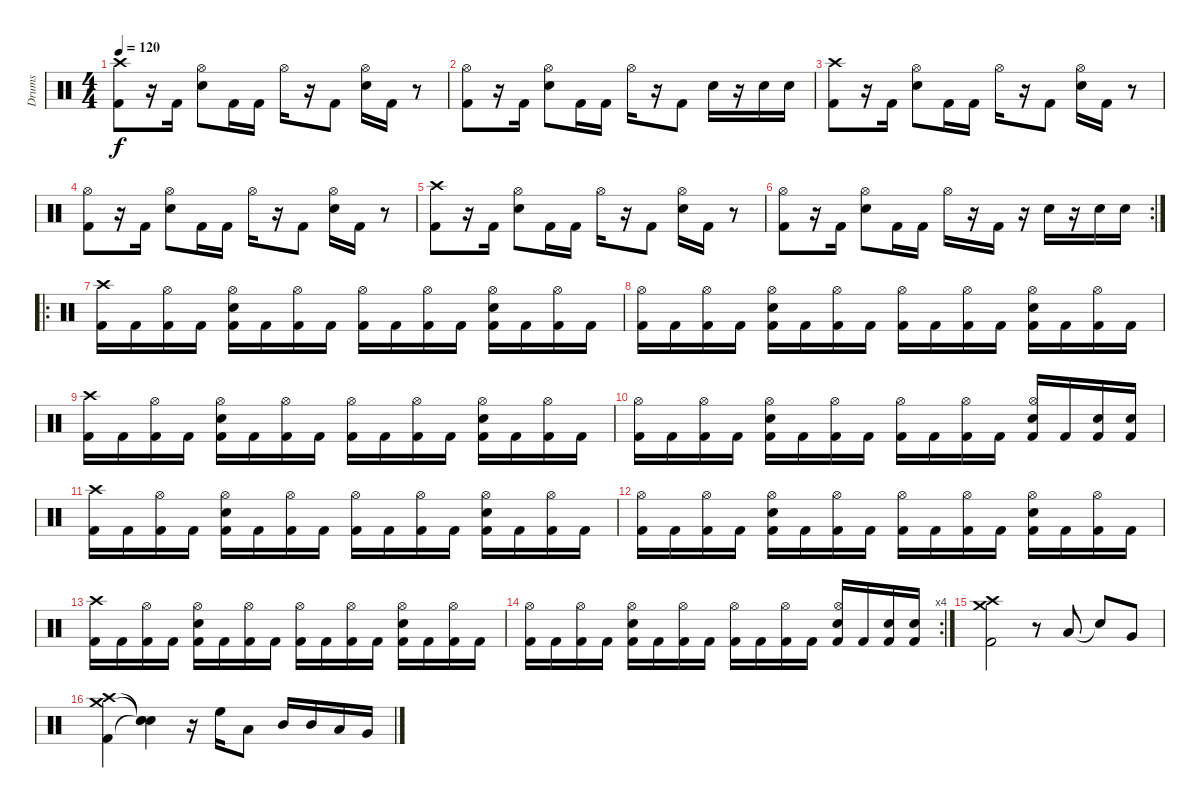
\track ("Drums" "Drums") {instrument percussion}
\staff {score}
\articulation defaults
\ts (4 4)
\tempo 120
\clef neutral
\ks c
("Crash high (hit)" "Kick (hit) 2").8{dy f} r.16 "Kick (hit) 2".16 ("Hi-Hat (open)" "Snare (hit) 2").8 "Kick (hit) 2".16 "Kick (hit) 2".16 "Hi-Hat (open)".16 r.16 "Kick (hit) 2".8 ("Hi-Hat (open)" "Snare (hit) 2").16 "Kick (hit) 2".16 r.8 |
("Hi-Hat (open)" "Kick (hit) 2").8 r.16 "Kick (hit) 2".16 ("Hi-Hat (open)" "Snare (hit) 2").8 "Kick (hit) 2".16 "Kick (hit) 2".16 "Hi-Hat (open)".16 r.16 "Kick (hit) 2".8 "Snare (hit) 2".16 r.16 "Snare (hit) 2".16 "Snare (hit) 2".16 |
("Crash high (hit)" "Kick (hit) 2").8 r.16 "Kick (hit) 2".16 ("Hi-Hat (open)" "Snare (hit) 2").8 "Kick (hit) 2".16 "Kick (hit) 2".16 "Hi-Hat (open)".16 r.16 "Kick (hit) 2".8 ("Hi-Hat (open)" "Snare (hit) 2").16 "Kick (hit) 2".16 r.8 |
("Hi-Hat (open)" "Kick (hit) 2").8 r.16 "Kick (hit) 2".16 ("Hi-Hat (open)" "Snare (hit) 2").8 "Kick (hit) 2".16 "Kick (hit) 2".16 "Hi-Hat (open)".16 r.16 "Kick (hit) 2".8 ("Hi-Hat (open)" "Snare (hit) 2").16 "Kick (hit) 2".16 r.8 |
("Crash high (hit)" "Kick (hit) 2").8 r.16 "Kick (hit) 2".16 ("Hi-Hat (open)" "Snare (hit) 2").8 "Kick (hit) 2".16 "Kick (hit) 2".16 "Hi-Hat (open)".16 r.16 "Kick (hit) 2".8 ("Hi-Hat (open)" "Snare (hit) 2").16 "Kick (hit) 2".16 r.8 |
\rc 2
("Hi-Hat (open)" "Kick (hit) 2").8 r.16 "Kick (hit) 2".16 ("Hi-Hat (open)" "Snare (hit) 2").8 "Kick (hit) 2".16 "Kick (hit) 2".16 "Hi-Hat (open)".16 r.16 "Kick (hit) 2".16 r.16 "Snare (hit) 2".16 r.16 "Snare (hit) 2".16 "Snare (hit) 2".16 |
\ro
("Crash high (hit)" "Kick (hit) 2").16 "Kick (hit) 2".16 ("Hi-Hat (open)" "Kick (hit) 2").16 "Kick (hit) 2".16 ("Hi-Hat (open)" "Snare (hit) 2" "Kick (hit) 2").16 "Kick (hit) 2".16 ("Hi-Hat (open)" "Kick (hit) 2").16 "Kick (hit) 2".16 ("Hi-Hat (open)" "Kick (hit) 2").16 "Kick (hit) 2".16 ("Hi-Hat (open)" "Kick (hit) 2").16 "Kick (hit) 2".16 ("Hi-Hat (open)" "Snare (hit) 2" "Kick (hit) 2").16 "Kick (hit) 2".16 ("Hi-Hat (open)" "Kick (hit) 2").16 "Kick (hit) 2".16 |
("Hi-Hat (open)" "Kick (hit) 2").16 "Kick (hit) 2".16 ("Hi-Hat (open)" "Kick (hit) 2").16 "Kick (hit) 2".16 ("Hi-Hat (open)" "Snare (hit) 2" "Kick (hit) 2").16 "Kick (hit) 2".16 ("Hi-Hat (open)" "Kick (hit) 2").16 "Kick (hit) 2".16 ("Hi-Hat (open)" "Kick (hit) 2").16 "Kick (hit) 2".16 ("Hi-Hat (open)" "Kick (hit) 2").16 "Kick (hit) 2".16 ("Hi-Hat (open)" "Snare (hit) 2" "Kick (hit) 2").16 "Kick (hit) 2".16 ("Hi-Hat (open)" "Kick (hit) 2").16 "Kick (hit) 2".16 |
("Crash high (hit)" "Kick (hit) 2").16 "Kick (hit) 2".16 ("Hi-Hat (open)" "Kick (hit) 2").16 "Kick (hit) 2".16 ("Hi-Hat (open)" "Snare (hit) 2" "Kick (hit) 2").16 "Kick (hit) 2".16 ("Hi-Hat (open)" "Kick (hit) 2").16 "Kick (hit) 2".16 ("Hi-Hat (open)" "Kick (hit) 2").16 "Kick (hit) 2".16 ("Hi-Hat (open)" "Kick (hit) 2").16 "Kick (hit) 2".16 ("Hi-Hat (open)" "Snare (hit) 2" "Kick (hit) 2").16 "Kick (hit) 2".16 ("Hi-Hat (open)" "Kick (hit) 2").16 "Kick (hit) 2".16 |
("Hi-Hat (open)" "Kick (hit) 2").16 "Kick (hit) 2".16 ("Hi-Hat (open)" "Kick (hit) 2").16 "Kick (hit) 2".16 ("Hi-Hat (open)" "Snare (hit) 2" "Kick (hit) 2").16 "Kick (hit) 2".16 ("Hi-Hat (open)" "Kick (hit) 2").16 "Kick (hit) 2".16 ("Hi-Hat (open)" "Kick (hit) 2").16 "Kick (hit) 2".16 ("Hi-Hat (open)" "Kick (hit) 2").16 "Kick (hit) 2".16 ("Hi-Hat (open)" "Snare (hit) 2" "Kick (hit) 2").16 "Kick (hit) 2".16 ("Snare (hit) 2" "Kick (hit) 2").16 ("Snare (hit) 2" "Kick (hit) 2").16 |
("Crash high (hit)" "Kick (hit) 2").16 "Kick (hit) 2".16 ("Hi-Hat (open)" "Kick (hit) 2").16 "Kick (hit) 2".16 ("Hi-Hat (open)" "Snare (hit) 2" "Kick (hit) 2").16 "Kick (hit) 2".16 ("Hi-Hat (open)" "Kick (hit) 2").16 "Kick (hit) 2".16 ("Hi-Hat (open)" "Kick (hit) 2").16 "Kick (hit) 2".16 ("Hi-Hat (open)" "Kick (hit) 2").16 "Kick (hit) 2".16 ("Hi-Hat (open)" "Snare (hit) 2" "Kick (hit) 2").16 "Kick (hit) 2".16 ("Hi-Hat (open)" "Kick (hit) 2").16 "Kick (hit) 2".16 |
("Hi-Hat (open)" "Kick (hit) 2").16 "Kick (hit) 2".16 ("Hi-Hat (open)" "Kick (hit) 2").16 "Kick (hit) 2".16 ("Hi-Hat (open)" "Snare (hit) 2" "Kick (hit) 2").16 "Kick (hit) 2".16 ("Hi-Hat (open)" "Kick (hit) 2").16 "Kick (hit) 2".16 ("Hi-Hat (open)" "Kick (hit) 2").16 "Kick (hit) 2".16 ("Hi-Hat (open)" "Kick (hit) 2").16 "Kick (hit) 2".16 ("Hi-Hat (open)" "Snare (hit) 2" "Kick (hit) 2").16 "Kick (hit) 2".16 ("Hi-Hat (open)" "Kick (hit) 2").16 "Kick (hit) 2".16 |
("Crash high (hit)" "Kick (hit) 2").16 "Kick (hit) 2".16 ("Hi-Hat (open)" "Kick (hit) 2").16 "Kick (hit) 2".16 ("Hi-Hat (open)" "Snare (hit) 2" "Kick (hit) 2").16 "Kick (hit) 2".16 ("Hi-Hat (open)" "Kick (hit) 2").16 "Kick (hit) 2".16 ("Hi-Hat (open)" "Kick (hit) 2").16 "Kick (hit) 2".16 ("Hi-Hat (open)" "Kick (hit) 2").16 "Kick (hit) 2".16 ("Hi-Hat (open)" "Snare (hit) 2" "Kick (hit) 2").16 "Kick (hit) 2".16 ("Hi-Hat (open)" "Kick (hit) 2").16 "Kick (hit) 2".16 |
\rc 4
("Hi-Hat (open)" "Kick (hit) 2").16 "Kick (hit) 2".16 ("Hi-Hat (open)" "Kick (hit) 2").16 "Kick (hit) 2".16 ("Hi-Hat (open)" "Snare (hit) 2" "Kick (hit) 2").16 "Kick (hit) 2".16 ("Hi-Hat (open)" "Kick (hit) 2").16 "Kick (hit) 2".16 ("Hi-Hat (open)" "Kick (hit) 2").16 "Kick (hit) 2".16 ("Hi-Hat (open)" "Kick (hit) 2").16 "Kick (hit) 2".16 ("Hi-Hat (open)" "Snare (hit) 2" "Kick (hit) 2").16 "Kick (hit) 2".16 ("Snare (hit) 2" "Kick (hit) 2").16 ("Snare (hit) 2" "Kick (hit) 2").16 |
("Crash high (hit)" "Crash medium (hit)" "Kick (hit) 2").2 r.8 "Low Tom (hit)".8 "Snare (hit)"{t}.8 "Very Low Tom (hit)".8 |
("Crash high (hit)" "Crash medium (hit)" "Kick (hit) 2").4 ("Snare (hit)"{t} "Snare (hit)"{t} "Snare (hit)"{t}).4 r.16 "High Floor Tom (hit)".16 "Low Tom (hit)".8 "Mid Tom (hit)".16 "Mid Tom (hit)".16 "Low Tom (hit)".16 "Very Low Tom (hit)".16
